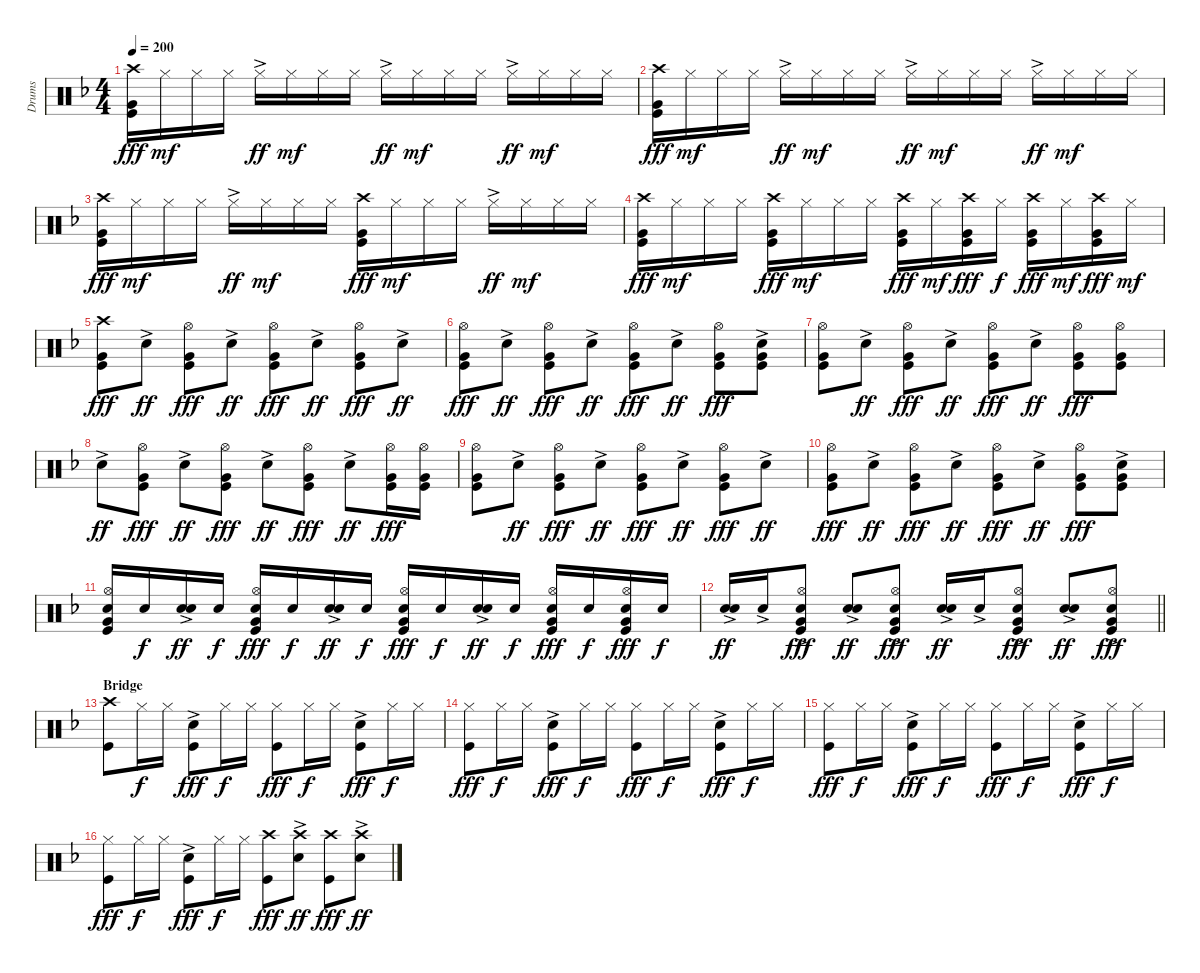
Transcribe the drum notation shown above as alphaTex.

\track ("Drums" "Drums") {instrument percussion bank 25}
\staff {score}
\articulation defaults
\ts (4 4)
\tempo 200
\clef neutral
\ks dminor
("Crash high (hit)" "Very Low Tom (hit)" "Kick (hit)").16{dy fff} "Hi-Hat (closed)".16{dy mf} "Hi-Hat (closed)".16 "Hi-Hat (closed)".16 "Hi-Hat (closed)"{ac}.16{dy ff} "Hi-Hat (closed)".16{dy mf} "Hi-Hat (closed)".16 "Hi-Hat (closed)".16 "Hi-Hat (closed)"{ac}.16{dy ff} "Hi-Hat (closed)".16{dy mf} "Hi-Hat (closed)".16 "Hi-Hat (closed)".16 "Hi-Hat (closed)"{ac}.16{dy ff} "Hi-Hat (closed)".16{dy mf} "Hi-Hat (closed)".16 "Hi-Hat (closed)".16 |
("Crash high (hit)" "Very Low Tom (hit)" "Kick (hit)").16{dy fff} "Hi-Hat (closed)".16{dy mf} "Hi-Hat (closed)".16 "Hi-Hat (closed)".16 "Hi-Hat (closed)"{ac}.16{dy ff} "Hi-Hat (closed)".16{dy mf} "Hi-Hat (closed)".16 "Hi-Hat (closed)".16 "Hi-Hat (closed)"{ac}.16{dy ff} "Hi-Hat (closed)".16{dy mf} "Hi-Hat (closed)".16 "Hi-Hat (closed)".16 "Hi-Hat (closed)"{ac}.16{dy ff} "Hi-Hat (closed)".16{dy mf} "Hi-Hat (closed)".16 "Hi-Hat (closed)".16 |
("Crash high (hit)" "Very Low Tom (hit)" "Kick (hit)").16{dy fff} "Hi-Hat (closed)".16{dy mf} "Hi-Hat (closed)".16 "Hi-Hat (closed)".16 "Hi-Hat (closed)"{ac}.16{dy ff} "Hi-Hat (closed)".16{dy mf} "Hi-Hat (closed)".16 "Hi-Hat (closed)".16 ("Crash high (hit)" "Very Low Tom (hit)" "Kick (hit)").16{dy fff} "Hi-Hat (closed)".16{dy mf} "Hi-Hat (closed)".16 "Hi-Hat (closed)".16 "Hi-Hat (closed)"{ac}.16{dy ff} "Hi-Hat (closed)".16{dy mf} "Hi-Hat (closed)".16 "Hi-Hat (closed)".16 |
("Crash high (hit)" "Very Low Tom (hit)" "Kick (hit)").16{dy fff} "Hi-Hat (closed)".16{dy mf} "Hi-Hat (closed)".16 "Hi-Hat (closed)".16 ("Crash high (hit)" "Very Low Tom (hit)" "Kick (hit)").16{dy fff} "Hi-Hat (closed)".16{dy mf} "Hi-Hat (closed)".16 "Hi-Hat (closed)".16 ("Crash high (hit)" "Very Low Tom (hit)" "Kick (hit)").16{dy fff} "Hi-Hat (closed)".16{dy mf} ("Crash high (hit)" "Very Low Tom (hit)" "Kick (hit)").16{dy fff} "Hi-Hat (closed)".16{dy f} ("Crash high (hit)" "Very Low Tom (hit)" "Kick (hit)").16{dy fff} "Hi-Hat (closed)".16{dy mf} ("Crash high (hit)" "Very Low Tom (hit)" "Kick (hit)").16{dy fff} "Hi-Hat (closed)".16{dy mf} |
("Crash high (hit)" "Very Low Tom (hit)" "Kick (hit)").8{dy fff} "Snare (hit) 2"{ac}.8{dy ff} ("Hi-Hat (open)" "Very Low Tom (hit)" "Kick (hit)").8{dy fff} "Snare (hit) 2"{ac}.8{dy ff} ("Hi-Hat (open)" "Very Low Tom (hit)" "Kick (hit)").8{dy fff} "Snare (hit) 2"{ac}.8{dy ff} ("Hi-Hat (open)" "Very Low Tom (hit)" "Kick (hit)").8{dy fff} "Snare (hit) 2"{ac}.8{dy ff} |
("Hi-Hat (open)" "Very Low Tom (hit)" "Kick (hit)").8{dy fff} "Snare (hit) 2"{ac}.8{dy ff} ("Hi-Hat (open)" "Very Low Tom (hit)" "Kick (hit)").8{dy fff} "Snare (hit) 2"{ac}.8{dy ff} ("Hi-Hat (open)" "Very Low Tom (hit)" "Kick (hit)").8{dy fff} "Snare (hit) 2"{ac}.8{dy ff} ("Hi-Hat (open)" "Very Low Tom (hit)" "Kick (hit)").8{dy fff} ("Snare (hit) 2"{ac} "Very Low Tom (hit)" "Kick (hit)").8 |
("Hi-Hat (open)" "Very Low Tom (hit)" "Kick (hit)").8 "Snare (hit) 2"{ac}.8{dy ff} ("Hi-Hat (open)" "Very Low Tom (hit)" "Kick (hit)").8{dy fff} "Snare (hit) 2"{ac}.8{dy ff} ("Hi-Hat (open)" "Very Low Tom (hit)" "Kick (hit)").8{dy fff} "Snare (hit) 2"{ac}.8{dy ff} ("Hi-Hat (open)" "Very Low Tom (hit)" "Kick (hit)").8{dy fff} ("Hi-Hat (open)" "Very Low Tom (hit)" "Kick (hit)").8 |
"Snare (hit) 2"{ac}.8{dy ff} ("Hi-Hat (open)" "Very Low Tom (hit)" "Kick (hit)").8{dy fff} "Snare (hit) 2"{ac}.8{dy ff} ("Hi-Hat (open)" "Very Low Tom (hit)" "Kick (hit)").8{dy fff} "Snare (hit) 2"{ac}.8{dy ff} ("Hi-Hat (open)" "Very Low Tom (hit)" "Kick (hit)").8{dy fff} "Snare (hit) 2"{ac}.8{dy ff} ("Hi-Hat (open)" "Very Low Tom (hit)" "Kick (hit)").16{dy fff} ("Hi-Hat (open)" "Very Low Tom (hit)" "Kick (hit)").16 |
("Hi-Hat (open)" "Very Low Tom (hit)" "Kick (hit)").8 "Snare (hit) 2"{ac}.8{dy ff} ("Hi-Hat (open)" "Very Low Tom (hit)" "Kick (hit)").8{dy fff} "Snare (hit) 2"{ac}.8{dy ff} ("Hi-Hat (open)" "Very Low Tom (hit)" "Kick (hit)").8{dy fff} "Snare (hit) 2"{ac}.8{dy ff} ("Hi-Hat (open)" "Very Low Tom (hit)" "Kick (hit)").8{dy fff} "Snare (hit) 2"{ac}.8{dy ff} |
("Hi-Hat (open)" "Very Low Tom (hit)" "Kick (hit)").8{dy fff} "Snare (hit) 2"{ac}.8{dy ff} ("Hi-Hat (open)" "Very Low Tom (hit)" "Kick (hit)").8{dy fff} "Snare (hit) 2"{ac}.8{dy ff} ("Hi-Hat (open)" "Very Low Tom (hit)" "Kick (hit)").8{dy fff} "Snare (hit) 2"{ac}.8{dy ff} ("Hi-Hat (open)" "Very Low Tom (hit)" "Kick (hit)").8{dy fff} ("Snare (hit) 2"{ac} "Very Low Tom (hit)" "Kick (hit)").8 |
("Hi-Hat (open)" "Electric Snare (hit)" "Very Low Tom (hit)" "Kick (hit)").16 "Electric Snare (hit)".16{dy f} ("Electric Snare (hit)" "Snare (hit) 2"{ac}).16{dy ff} "Electric Snare (hit)".16{dy f} ("Hi-Hat (open)" "Electric Snare (hit)" "Very Low Tom (hit)" "Kick (hit)").16{dy fff} "Electric Snare (hit)".16{dy f} ("Electric Snare (hit)" "Snare (hit) 2"{ac}).16{dy ff} "Electric Snare (hit)".16{dy f} ("Hi-Hat (open)" "Electric Snare (hit)" "Very Low Tom (hit)" "Kick (hit)").16{dy fff} "Electric Snare (hit)".16{dy f} ("Electric Snare (hit)" "Snare (hit) 2"{ac}).16{dy ff} "Electric Snare (hit)".16{dy f} ("Hi-Hat (open)" "Electric Snare (hit)" "Very Low Tom (hit)" "Kick (hit)").16{dy fff} "Electric Snare (hit)".16{dy f} ("Hi-Hat (open)" "Electric Snare (hit)" "Very Low Tom (hit)" "Kick (hit)").16{dy fff} "Electric Snare (hit)".16{dy f} |
\barLineRight lightlight
("Electric Snare (hit)"{ac} "Snare (hit) 2"{ac}).16{dy ff} "Electric Snare (hit)"{ac}.16 ("Hi-Hat (open)" "Electric Snare (hit)"{ac} "Very Low Tom (hit)" "Kick (hit)").8{dy fff} ("Electric Snare (hit)"{ac} "Snare (hit) 2"{ac}).8{dy ff} ("Hi-Hat (open)" "Electric Snare (hit)"{ac} "Very Low Tom (hit)" "Kick (hit)").8{dy fff} ("Electric Snare (hit)"{ac} "Snare (hit) 2"{ac}).16{dy ff} "Electric Snare (hit)"{ac}.16 ("Hi-Hat (open)" "Electric Snare (hit)"{ac} "Very Low Tom (hit)" "Kick (hit)").8{dy fff} ("Electric Snare (hit)"{ac} "Snare (hit) 2"{ac}).8{dy ff} ("Hi-Hat (open)" "Electric Snare (hit)"{ac} "Very Low Tom (hit)" "Kick (hit)").8{dy fff} |
\section ("" "Bridge")
("Crash high (hit)" "Kick (hit)").8 "Hi-Hat (closed)".16{dy f} "Hi-Hat (closed)".16 ("Snare (hit) 2"{ac} "Kick (hit)").8{dy fff} "Hi-Hat (closed)".16{dy f} "Hi-Hat (closed)".16 ("Hi-Hat (closed)" "Kick (hit)").8{dy fff} "Hi-Hat (closed)".16{dy f} "Hi-Hat (closed)".16 ("Snare (hit) 2"{ac} "Kick (hit)").8{dy fff} "Hi-Hat (closed)".16{dy f} "Hi-Hat (closed)".16 |
("Hi-Hat (closed)" "Kick (hit)").8{dy fff} "Hi-Hat (closed)".16{dy f} "Hi-Hat (closed)".16 ("Snare (hit) 2"{ac} "Kick (hit)").8{dy fff} "Hi-Hat (closed)".16{dy f} "Hi-Hat (closed)".16 ("Hi-Hat (closed)" "Kick (hit)").8{dy fff} "Hi-Hat (closed)".16{dy f} "Hi-Hat (closed)".16 ("Snare (hit) 2"{ac} "Kick (hit)").8{dy fff} "Hi-Hat (closed)".16{dy f} "Hi-Hat (closed)".16 |
("Hi-Hat (closed)" "Kick (hit)").8{dy fff} "Hi-Hat (closed)".16{dy f} "Hi-Hat (closed)".16 ("Snare (hit) 2"{ac} "Kick (hit)").8{dy fff} "Hi-Hat (closed)".16{dy f} "Hi-Hat (closed)".16 ("Hi-Hat (closed)" "Kick (hit)").8{dy fff} "Hi-Hat (closed)".16{dy f} "Hi-Hat (closed)".16 ("Snare (hit) 2"{ac} "Kick (hit)").8{dy fff} "Hi-Hat (closed)".16{dy f} "Hi-Hat (closed)".16 |
("Hi-Hat (closed)" "Kick (hit)").8{dy fff} "Hi-Hat (closed)".16{dy f} "Hi-Hat (closed)".16 ("Snare (hit) 2"{ac} "Kick (hit)").8{dy fff} "Hi-Hat (closed)".16{dy f} "Hi-Hat (closed)".16 ("Crash high (hit)" "Kick (hit)").8{dy fff} ("Crash high (hit)" "Snare (hit) 2"{ac}).8{dy ff} ("Crash high (hit)" "Kick (hit)").8{dy fff} ("Crash high (hit)" "Snare (hit) 2"{ac}).8{dy ff}
